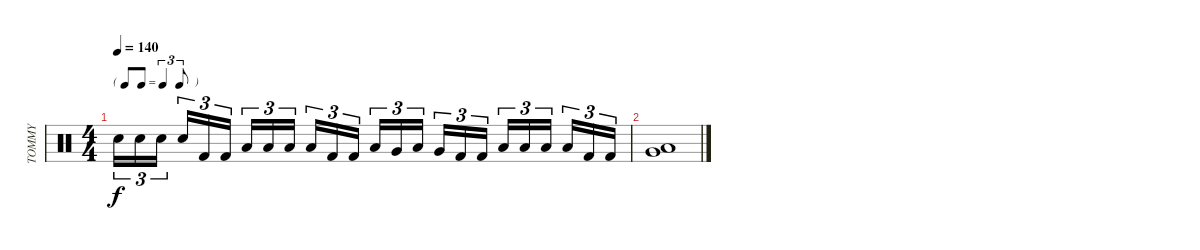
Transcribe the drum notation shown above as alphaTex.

\track ("TOMMY" "TOMMY") {instrument percussion}
\staff {score}
\articulation defaults
\ts (4 4)
\tf triplet8th
\tempo 140
\clef neutral
\ks c "Snare (hit) 2".16{tu (3 2) dy f} "Snare (hit) 2".16{tu (3 2)} "Snare (hit) 2".16{tu (3 2)} "Snare (hit) 2".16{tu (3 2)} "Kick (hit) 2".16{tu (3 2)} "Kick (hit) 2".16{tu (3 2)} "Low Floor Tom (hit)".16{tu (3 2)} "Low Floor Tom (hit)".16{tu (3 2)} "Low Floor Tom (hit)".16{tu (3 2)} "Low Floor Tom (hit)".16{tu (3 2)} "Kick (hit) 2".16{tu (3 2)} "Kick (hit) 2".16{tu (3 2)} "Low Floor Tom (hit)".16{tu (3 2)} "Very Low Tom (hit)".16{tu (3 2)} "Low Floor Tom (hit)".16{tu (3 2)} "Very Low Tom (hit)".16{tu (3 2)} "Kick (hit) 2".16{tu (3 2)} "Kick (hit) 2".16{tu (3 2)} "Low Floor Tom (hit)".16{tu (3 2)} "Low Floor Tom (hit)".16{tu (3 2)} "Low Floor Tom (hit)".16{tu (3 2)} "Low Floor Tom (hit)".16{tu (3 2)} "Kick (hit) 2".16{tu (3 2)} "Kick (hit) 2".16{tu (3 2)}
|
("Very Low Tom (hit)" "Low Floor Tom (hit)").1
